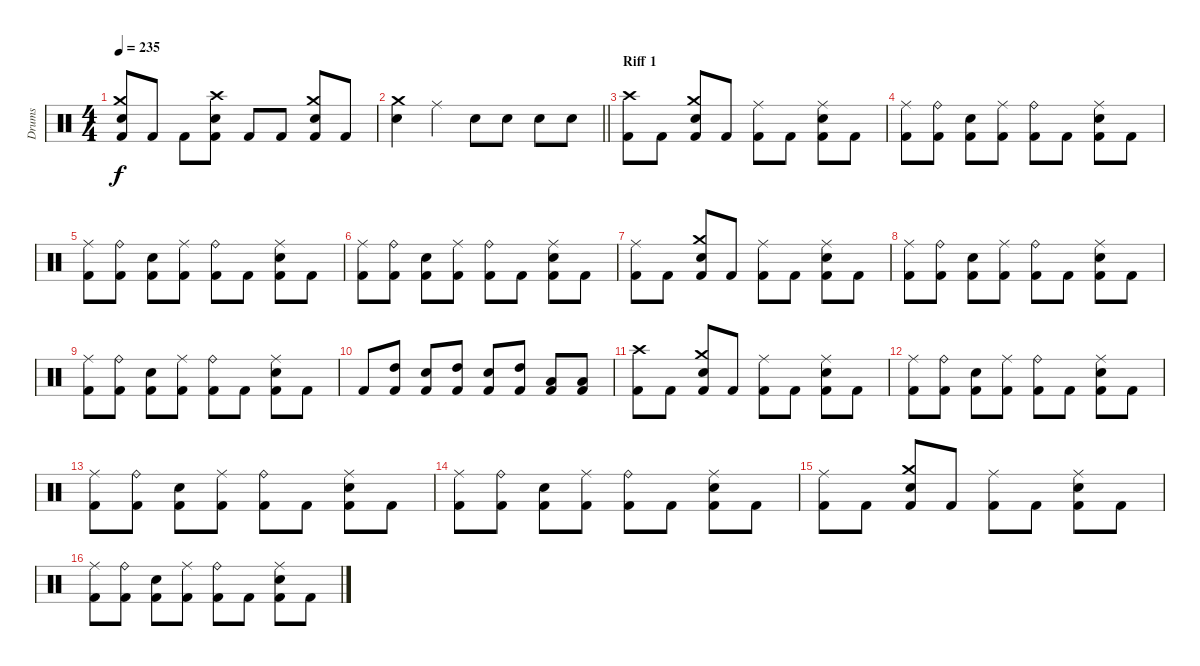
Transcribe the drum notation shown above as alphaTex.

\track ("Drums" "Drums") {instrument percussion}
\staff {score}
\articulation defaults
\ts (4 4)
\tempo 235
\clef neutral
\ks aminor
("Electric Snare (hit)" "Crash medium (hit)" "Kick (hit) 2").8{dy f} "Kick (hit) 2".8 "Kick (hit) 2".8 ("Electric Snare (hit)" "Crash high (hit)" "Kick (hit) 2").8 "Kick (hit) 2".8 "Kick (hit) 2".8 ("Crash medium (hit)" "Electric Snare (hit)" "Kick (hit) 2").8 "Kick (hit) 2".8 |
\barLineRight lightlight
("Electric Snare (hit)" "Crash medium (hit)").4 "Ride (middle)".4 "Electric Snare (hit)".8 "Electric Snare (hit)".8 "Electric Snare (hit)".8 "Electric Snare (hit)".8 |
\section ("" "Riff 1")
("Kick (hit) 2" "Crash high (hit)").8 "Kick (hit) 2".8 ("Kick (hit) 2" "Crash medium (hit)" "Electric Snare (hit)").8 "Kick (hit) 2".8 ("Kick (hit) 2" "Ride (middle)").8 "Kick (hit) 2".8 ("Kick (hit) 2" "Electric Snare (hit)" "Ride (middle)").8 "Kick (hit) 2".8 |
("Kick (hit) 2" "Ride (middle)").8 ("Kick (hit) 2" "Ride (bell)").8 ("Kick (hit) 2" "Electric Snare (hit)").8 ("Kick (hit) 2" "Ride (middle)").8 ("Kick (hit) 2" "Ride (bell)").8 "Kick (hit) 2".8 ("Kick (hit) 2" "Electric Snare (hit)" "Ride (middle)").8 "Kick (hit) 2".8 |
("Kick (hit) 2" "Ride (middle)").8 ("Kick (hit) 2" "Ride (bell)").8 ("Kick (hit) 2" "Electric Snare (hit)").8 ("Kick (hit) 2" "Ride (middle)").8 ("Kick (hit) 2" "Ride (bell)").8 "Kick (hit) 2".8 ("Kick (hit) 2" "Electric Snare (hit)" "Ride (middle)").8 "Kick (hit) 2".8 |
("Kick (hit) 2" "Ride (middle)").8 ("Kick (hit) 2" "Ride (bell)").8 ("Kick (hit) 2" "Electric Snare (hit)").8 ("Kick (hit) 2" "Ride (middle)").8 ("Kick (hit) 2" "Ride (bell)").8 "Kick (hit) 2".8 ("Kick (hit) 2" "Electric Snare (hit)" "Ride (middle)").8 "Kick (hit) 2".8 |
("Ride (middle)" "Kick (hit) 2").8 "Kick (hit) 2".8 ("Crash medium (hit)" "Electric Snare (hit)" "Kick (hit) 2").8 "Kick (hit) 2".8 ("Ride (middle)" "Kick (hit) 2").8 "Kick (hit) 2".8 ("Ride (middle)" "Electric Snare (hit)" "Kick (hit) 2").8 "Kick (hit) 2".8 |
("Kick (hit) 2" "Ride (middle)").8 ("Kick (hit) 2" "Ride (bell)").8 ("Kick (hit) 2" "Electric Snare (hit)").8 ("Kick (hit) 2" "Ride (middle)").8 ("Kick (hit) 2" "Ride (bell)").8 "Kick (hit) 2".8 ("Kick (hit) 2" "Electric Snare (hit)" "Ride (middle)").8 "Kick (hit) 2".8 |
("Kick (hit) 2" "Ride (middle)").8 ("Kick (hit) 2" "Ride (bell)").8 ("Kick (hit) 2" "Electric Snare (hit)").8 ("Kick (hit) 2" "Ride (middle)").8 ("Kick (hit) 2" "Ride (bell)").8 "Kick (hit) 2".8 ("Kick (hit) 2" "Electric Snare (hit)" "Ride (middle)").8 "Kick (hit) 2".8 |
"Kick (hit) 2".8 ("High Tom (hit)" "Kick (hit) 2").8 ("Electric Snare (hit)" "Kick (hit) 2").8 ("High Tom (hit)" "Kick (hit) 2").8 ("Electric Snare (hit)" "Kick (hit) 2").8 ("High Tom (hit)" "Kick (hit) 2").8 ("Low Tom (hit)" "Kick (hit) 2").8 ("Low Tom (hit)" "Kick (hit) 2").8 |
("Kick (hit) 2" "Crash high (hit)").8 "Kick (hit) 2".8 ("Kick (hit) 2" "Crash medium (hit)" "Electric Snare (hit)").8 "Kick (hit) 2".8 ("Kick (hit) 2" "Ride (middle)").8 "Kick (hit) 2".8 ("Kick (hit) 2" "Electric Snare (hit)" "Ride (middle)").8 "Kick (hit) 2".8 |
("Kick (hit) 2" "Ride (middle)").8 ("Kick (hit) 2" "Ride (bell)").8 ("Kick (hit) 2" "Electric Snare (hit)").8 ("Kick (hit) 2" "Ride (middle)").8 ("Kick (hit) 2" "Ride (bell)").8 "Kick (hit) 2".8 ("Kick (hit) 2" "Electric Snare (hit)" "Ride (middle)").8 "Kick (hit) 2".8 |
("Kick (hit) 2" "Ride (middle)").8 ("Kick (hit) 2" "Ride (bell)").8 ("Kick (hit) 2" "Electric Snare (hit)").8 ("Kick (hit) 2" "Ride (middle)").8 ("Kick (hit) 2" "Ride (bell)").8 "Kick (hit) 2".8 ("Kick (hit) 2" "Electric Snare (hit)" "Ride (middle)").8 "Kick (hit) 2".8 |
("Kick (hit) 2" "Ride (middle)").8 ("Kick (hit) 2" "Ride (bell)").8 ("Kick (hit) 2" "Electric Snare (hit)").8 ("Kick (hit) 2" "Ride (middle)").8 ("Kick (hit) 2" "Ride (bell)").8 "Kick (hit) 2".8 ("Kick (hit) 2" "Electric Snare (hit)" "Ride (middle)").8 "Kick (hit) 2".8 |
("Ride (middle)" "Kick (hit) 2").8 "Kick (hit) 2".8 ("Crash medium (hit)" "Electric Snare (hit)" "Kick (hit) 2").8 "Kick (hit) 2".8 ("Ride (middle)" "Kick (hit) 2").8 "Kick (hit) 2".8 ("Ride (middle)" "Electric Snare (hit)" "Kick (hit) 2").8 "Kick (hit) 2".8 |
("Kick (hit) 2" "Ride (middle)").8 ("Kick (hit) 2" "Ride (bell)").8 ("Kick (hit) 2" "Electric Snare (hit)").8 ("Kick (hit) 2" "Ride (middle)").8 ("Kick (hit) 2" "Ride (bell)").8 "Kick (hit) 2".8 ("Kick (hit) 2" "Electric Snare (hit)" "Ride (middle)").8 "Kick (hit) 2".8
